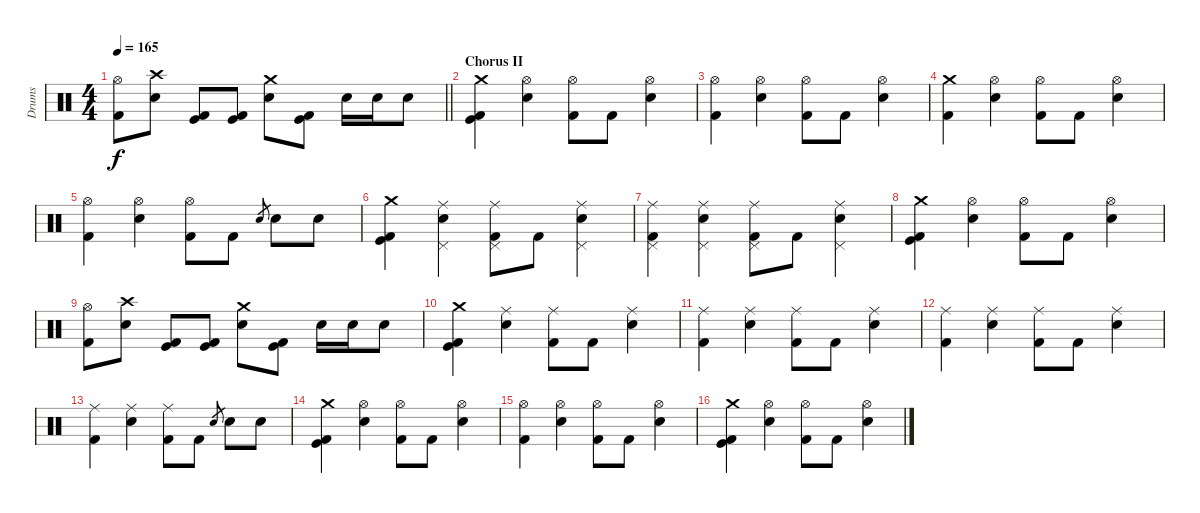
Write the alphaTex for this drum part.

\track ("Drums" "Drums") {instrument percussion}
\staff {score}
\articulation defaults
\ts (4 4)
\tempo 165
\clef neutral
\barLineRight lightlight
\ks c
("Hi-Hat (open)" "Kick (hit) 2").8{dy f} ("Electric Snare (hit)" "Crash high (hit)").8 ("Kick (hit) 2" "Kick (hit)").8 ("Kick (hit) 2" "Kick (hit)").8 ("Electric Snare (hit)" "Crash medium (hit)").8 ("Kick (hit) 2" "Kick (hit)").8 "Electric Snare (hit)".16 "Electric Snare (hit)".16 "Electric Snare (hit)".8 |
\section ("" "Chorus II")
("Kick (hit)" "Kick (hit) 2" "Crash medium (hit)").4 ("Hi-Hat (open)" "Electric Snare (hit)").4 ("Hi-Hat (open)" "Kick (hit) 2").8 "Kick (hit) 2".8 ("Hi-Hat (open)" "Electric Snare (hit)").4 |
("Hi-Hat (open)" "Kick (hit) 2").4 ("Hi-Hat (open)" "Electric Snare (hit)").4 ("Hi-Hat (open)" "Kick (hit) 2").8 "Kick (hit) 2".8 ("Hi-Hat (open)" "Electric Snare (hit)").4 |
("Crash medium (hit)" "Kick (hit) 2").4 ("Hi-Hat (open)" "Electric Snare (hit)").4 ("Hi-Hat (open)" "Kick (hit) 2").8 "Kick (hit) 2".8 ("Hi-Hat (open)" "Electric Snare (hit)").4 |
("Hi-Hat (open)" "Kick (hit) 2").4 ("Hi-Hat (open)" "Electric Snare (hit)").4 ("Hi-Hat (open)" "Kick (hit) 2").8 "Kick (hit) 2".8 "Electric Snare (hit)".8{gr} "Electric Snare (hit)".8 "Electric Snare (hit)".8 |
("Crash medium (hit)" "Kick (hit) 2" "Kick (hit)").4 ("Pedal Hi-Hat (hit)" "Electric Snare (hit)" "Ride (middle)").4 ("Pedal Hi-Hat (hit)" "Kick (hit) 2" "Ride (middle)").8 "Kick (hit) 2".8 ("Pedal Hi-Hat (hit)" "Electric Snare (hit)" "Ride (middle)").4 |
("Pedal Hi-Hat (hit)" "Kick (hit) 2" "Ride (middle)").4 ("Pedal Hi-Hat (hit)" "Electric Snare (hit)" "Ride (middle)").4 ("Pedal Hi-Hat (hit)" "Kick (hit) 2" "Ride (middle)").8 "Kick (hit) 2".8 ("Pedal Hi-Hat (hit)" "Electric Snare (hit)" "Ride (middle)").4 |
("Crash medium (hit)" "Kick (hit) 2" "Kick (hit)").4 ("Hi-Hat (open)" "Electric Snare (hit)").4 ("Hi-Hat (open)" "Kick (hit) 2").8 "Kick (hit) 2".8 ("Hi-Hat (open)" "Electric Snare (hit)").4 |
("Hi-Hat (open)" "Kick (hit) 2").8 ("Electric Snare (hit)" "Crash high (hit)").8 ("Kick (hit) 2" "Kick (hit)").8 ("Kick (hit) 2" "Kick (hit)").8 ("Electric Snare (hit)" "Crash medium (hit)").8 ("Kick (hit) 2" "Kick (hit)").8 "Electric Snare (hit)".16 "Electric Snare (hit)".16 "Electric Snare (hit)".8 |
("Kick (hit)" "Kick (hit) 2" "Crash medium (hit)").4 ("Ride (middle)" "Electric Snare (hit)").4 ("Ride (middle)" "Kick (hit) 2").8 "Kick (hit) 2".8 ("Ride (middle)" "Electric Snare (hit)").4 |
("Ride (middle)" "Kick (hit) 2").4 ("Ride (middle)" "Electric Snare (hit)").4 ("Ride (middle)" "Kick (hit) 2").8 "Kick (hit) 2".8 ("Ride (middle)" "Electric Snare (hit)").4 |
("Ride (middle)" "Kick (hit) 2").4 ("Ride (middle)" "Electric Snare (hit)").4 ("Ride (middle)" "Kick (hit) 2").8 "Kick (hit) 2".8 ("Ride (middle)" "Electric Snare (hit)").4 |
("Ride (middle)" "Kick (hit) 2").4 ("Ride (middle)" "Electric Snare (hit)").4 ("Ride (middle)" "Kick (hit) 2").8 "Kick (hit) 2".8 "Electric Snare (hit)".8{gr} "Electric Snare (hit)".8 "Electric Snare (hit)".8 |
("Crash medium (hit)" "Kick (hit) 2" "Kick (hit)").4 ("Hi-Hat (open)" "Electric Snare (hit)").4 ("Hi-Hat (open)" "Kick (hit) 2").8 "Kick (hit) 2".8 ("Hi-Hat (open)" "Electric Snare (hit)").4 |
("Hi-Hat (open)" "Kick (hit) 2").4 ("Hi-Hat (open)" "Electric Snare (hit)").4 ("Hi-Hat (open)" "Kick (hit) 2").8 "Kick (hit) 2".8 ("Hi-Hat (open)" "Electric Snare (hit)").4 |
("Crash medium (hit)" "Kick (hit) 2" "Kick (hit)").4 ("Hi-Hat (open)" "Electric Snare (hit)").4 ("Hi-Hat (open)" "Kick (hit) 2").8 "Kick (hit) 2".8 ("Hi-Hat (open)" "Electric Snare (hit)").4
